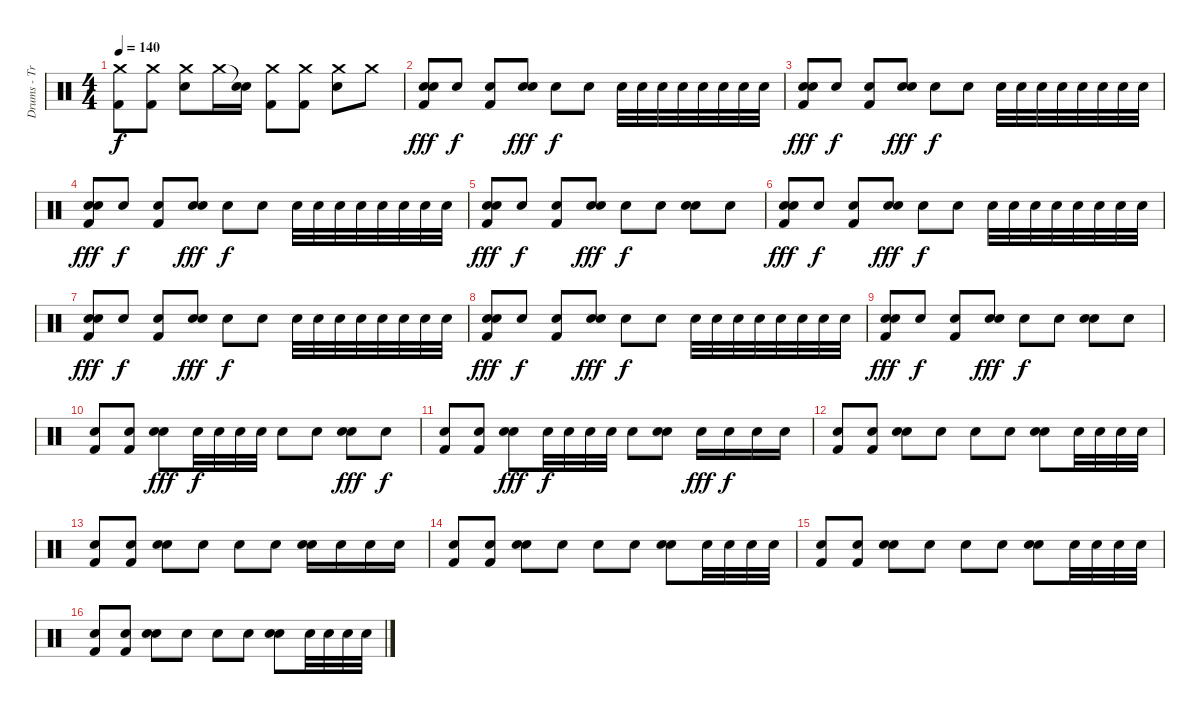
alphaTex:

\track ("Drums - Travis Barker" "Drums - Tr") {instrument percussion}
\staff {score}
\articulation defaults
\ts (4 4)
\tempo 140
\clef neutral
\ks c
("Crash medium (hit)" "Kick (hit) 2").8{dy f} ("Crash medium (hit)" "Kick (hit) 2").8 ("Crash medium (hit)" "Snare (hit) 2").8 "Crash medium (hit)".16 ("Snare (hit)"{t} "Snare (hit) 2").16 ("Crash medium (hit)" "Kick (hit) 2").8 ("Crash medium (hit)" "Kick (hit) 2").8 ("Crash medium (hit)" "Snare (hit) 2").8 "Crash medium (hit)".8 |
("Snare (hit) 2" "Snare (hit) 2" "Kick (hit) 2").8{dy fff} "Snare (hit) 2".8{dy f} ("Snare (hit) 2" "Kick (hit) 2").8 ("Snare (hit) 2" "Snare (hit) 2").8{dy fff} "Snare (hit) 2".8{dy f} "Snare (hit) 2".8 "Snare (hit) 2".32 "Snare (hit) 2".32 "Snare (hit) 2".32 "Snare (hit) 2".32 "Snare (hit) 2".32 "Snare (hit) 2".32 "Snare (hit) 2".32 "Snare (hit) 2".32 |
("Snare (hit) 2" "Snare (hit) 2" "Kick (hit) 2").8{dy fff} "Snare (hit) 2".8{dy f} ("Snare (hit) 2" "Kick (hit) 2").8 ("Snare (hit) 2" "Snare (hit) 2").8{dy fff} "Snare (hit) 2".8{dy f} "Snare (hit) 2".8 "Snare (hit) 2".32 "Snare (hit) 2".32 "Snare (hit) 2".32 "Snare (hit) 2".32 "Snare (hit) 2".32 "Snare (hit) 2".32 "Snare (hit) 2".32 "Snare (hit) 2".32 |
("Snare (hit) 2" "Snare (hit) 2" "Kick (hit) 2").8{dy fff} "Snare (hit) 2".8{dy f} ("Snare (hit) 2" "Kick (hit) 2").8 ("Snare (hit) 2" "Snare (hit) 2").8{dy fff} "Snare (hit) 2".8{dy f} "Snare (hit) 2".8 "Snare (hit) 2".32 "Snare (hit) 2".32 "Snare (hit) 2".32 "Snare (hit) 2".32 "Snare (hit) 2".32 "Snare (hit) 2".32 "Snare (hit) 2".32 "Snare (hit) 2".32 |
("Snare (hit) 2" "Snare (hit) 2" "Kick (hit) 2").8{dy fff} "Snare (hit) 2".8{dy f} ("Snare (hit) 2" "Kick (hit) 2").8 ("Snare (hit) 2" "Snare (hit) 2").8{dy fff} "Snare (hit) 2".8{dy f} "Snare (hit) 2".8 ("Snare (hit) 2" "Snare (hit) 2").8 "Snare (hit) 2".8 |
("Snare (hit) 2" "Snare (hit) 2" "Kick (hit) 2").8{dy fff} "Snare (hit) 2".8{dy f} ("Snare (hit) 2" "Kick (hit) 2").8 ("Snare (hit) 2" "Snare (hit) 2").8{dy fff} "Snare (hit) 2".8{dy f} "Snare (hit) 2".8 "Snare (hit) 2".32 "Snare (hit) 2".32 "Snare (hit) 2".32 "Snare (hit) 2".32 "Snare (hit) 2".32 "Snare (hit) 2".32 "Snare (hit) 2".32 "Snare (hit) 2".32 |
("Snare (hit) 2" "Snare (hit) 2" "Kick (hit) 2").8{dy fff} "Snare (hit) 2".8{dy f} ("Snare (hit) 2" "Kick (hit) 2").8 ("Snare (hit) 2" "Snare (hit) 2").8{dy fff} "Snare (hit) 2".8{dy f} "Snare (hit) 2".8 "Snare (hit) 2".32 "Snare (hit) 2".32 "Snare (hit) 2".32 "Snare (hit) 2".32 "Snare (hit) 2".32 "Snare (hit) 2".32 "Snare (hit) 2".32 "Snare (hit) 2".32 |
("Snare (hit) 2" "Snare (hit) 2" "Kick (hit) 2").8{dy fff} "Snare (hit) 2".8{dy f} ("Snare (hit) 2" "Kick (hit) 2").8 ("Snare (hit) 2" "Snare (hit) 2").8{dy fff} "Snare (hit) 2".8{dy f} "Snare (hit) 2".8 "Snare (hit) 2".32 "Snare (hit) 2".32 "Snare (hit) 2".32 "Snare (hit) 2".32 "Snare (hit) 2".32 "Snare (hit) 2".32 "Snare (hit) 2".32 "Snare (hit) 2".32 |
("Snare (hit) 2" "Snare (hit) 2" "Kick (hit) 2").8{dy fff} "Snare (hit) 2".8{dy f} ("Snare (hit) 2" "Kick (hit) 2").8 ("Snare (hit) 2" "Snare (hit) 2").8{dy fff} "Snare (hit) 2".8{dy f} "Snare (hit) 2".8 ("Snare (hit) 2" "Snare (hit) 2").8 "Snare (hit) 2".8 |
("Snare (hit) 2" "Kick (hit) 2").8 ("Snare (hit) 2" "Kick (hit) 2").8 ("Snare (hit) 2" "Snare (hit) 2").8{dy fff} "Snare (hit) 2".32{dy f} "Snare (hit) 2".32 "Snare (hit) 2".32 "Snare (hit) 2".32 "Snare (hit) 2".8 "Snare (hit) 2".8 ("Snare (hit) 2" "Snare (hit) 2").8{dy fff} "Snare (hit) 2".8{dy f} |
("Snare (hit) 2" "Kick (hit) 2").8 ("Snare (hit) 2" "Kick (hit) 2").8 ("Snare (hit) 2" "Snare (hit) 2").8{dy fff} "Snare (hit) 2".32{dy f} "Snare (hit) 2".32 "Snare (hit) 2".32 "Snare (hit) 2".32 "Snare (hit) 2".8 ("Snare (hit) 2" "Snare (hit) 2").8 "Snare (hit) 2".16{dy fff} "Snare (hit) 2".16{dy f} "Snare (hit) 2".16 "Snare (hit) 2".16 |
("Snare (hit) 2" "Kick (hit) 2").8 ("Snare (hit) 2" "Kick (hit) 2").8 ("Snare (hit) 2" "Snare (hit) 2").8 "Snare (hit) 2".8 "Snare (hit) 2".8 "Snare (hit) 2".8 ("Snare (hit) 2" "Snare (hit) 2").8 "Snare (hit) 2".32 "Snare (hit) 2".32 "Snare (hit) 2".32 "Snare (hit) 2".32 |
("Snare (hit) 2" "Kick (hit) 2").8 ("Snare (hit) 2" "Kick (hit) 2").8 ("Snare (hit) 2" "Snare (hit) 2").8 "Snare (hit) 2".8 "Snare (hit) 2".8 "Snare (hit) 2".8 ("Snare (hit) 2" "Snare (hit) 2").16 "Snare (hit) 2".16 "Snare (hit) 2".16 "Snare (hit) 2".16 |
("Snare (hit) 2" "Kick (hit) 2").8 ("Snare (hit) 2" "Kick (hit) 2").8 ("Snare (hit) 2" "Snare (hit) 2").8 "Snare (hit) 2".8 "Snare (hit) 2".8 "Snare (hit) 2".8 ("Snare (hit) 2" "Snare (hit) 2").8 "Snare (hit) 2".32 "Snare (hit) 2".32 "Snare (hit) 2".32 "Snare (hit) 2".32 |
("Snare (hit) 2" "Kick (hit) 2").8 ("Snare (hit) 2" "Kick (hit) 2").8 ("Snare (hit) 2" "Snare (hit) 2").8 "Snare (hit) 2".8 "Snare (hit) 2".8 "Snare (hit) 2".8 ("Snare (hit) 2" "Snare (hit) 2").8 "Snare (hit) 2".32 "Snare (hit) 2".32 "Snare (hit) 2".32 "Snare (hit) 2".32 |
("Snare (hit) 2" "Kick (hit) 2").8 ("Snare (hit) 2" "Kick (hit) 2").8 ("Snare (hit) 2" "Snare (hit) 2").8 "Snare (hit) 2".8 "Snare (hit) 2".8 "Snare (hit) 2".8 ("Snare (hit) 2" "Snare (hit) 2").8 "Snare (hit) 2".32 "Snare (hit) 2".32 "Snare (hit) 2".32 "Snare (hit) 2".32
